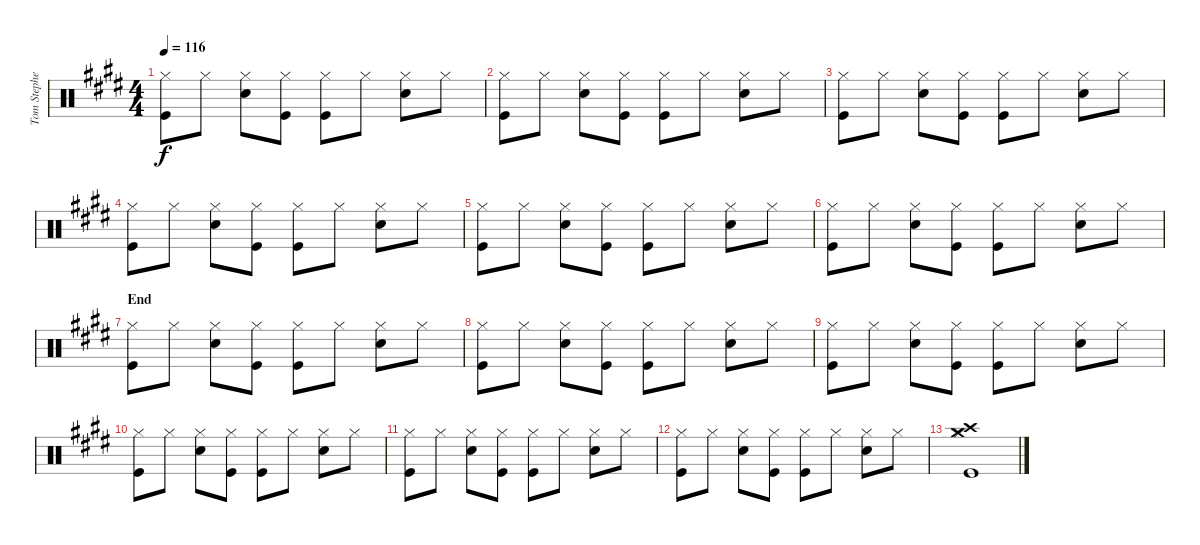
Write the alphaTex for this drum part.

\track ("Tom Stephen" "Tom Stephe") {instrument percussion}
\staff {score}
\articulation defaults
\ts (4 4)
\tempo 116
\clef neutral
\ks e
("Kick (hit)" "Hi-Hat (closed)").8{dy f} "Hi-Hat (closed)".8 ("Snare (hit) 2" "Hi-Hat (closed)").8 ("Kick (hit)" "Hi-Hat (closed)").8 ("Kick (hit)" "Hi-Hat (closed)").8 "Hi-Hat (closed)".8 ("Snare (hit) 2" "Hi-Hat (closed)").8 "Hi-Hat (closed)".8 |
("Kick (hit)" "Hi-Hat (closed)").8 "Hi-Hat (closed)".8 ("Snare (hit) 2" "Hi-Hat (closed)").8 ("Kick (hit)" "Hi-Hat (closed)").8 ("Kick (hit)" "Hi-Hat (closed)").8 "Hi-Hat (closed)".8 ("Snare (hit) 2" "Hi-Hat (closed)").8 "Hi-Hat (closed)".8 |
("Kick (hit)" "Hi-Hat (closed)").8 "Hi-Hat (closed)".8 ("Snare (hit) 2" "Hi-Hat (closed)").8 ("Kick (hit)" "Hi-Hat (closed)").8 ("Kick (hit)" "Hi-Hat (closed)").8 "Hi-Hat (closed)".8 ("Snare (hit) 2" "Hi-Hat (closed)").8 "Hi-Hat (closed)".8 |
("Kick (hit)" "Hi-Hat (closed)").8 "Hi-Hat (closed)".8 ("Snare (hit) 2" "Hi-Hat (closed)").8 ("Kick (hit)" "Hi-Hat (closed)").8 ("Kick (hit)" "Hi-Hat (closed)").8 "Hi-Hat (closed)".8 ("Snare (hit) 2" "Hi-Hat (closed)").8 "Hi-Hat (closed)".8 |
("Kick (hit)" "Hi-Hat (closed)").8 "Hi-Hat (closed)".8 ("Snare (hit) 2" "Hi-Hat (closed)").8 ("Kick (hit)" "Hi-Hat (closed)").8 ("Kick (hit)" "Hi-Hat (closed)").8 "Hi-Hat (closed)".8 ("Snare (hit) 2" "Hi-Hat (closed)").8 "Hi-Hat (closed)".8 |
("Kick (hit)" "Hi-Hat (closed)").8 "Hi-Hat (closed)".8 ("Snare (hit) 2" "Hi-Hat (closed)").8 ("Kick (hit)" "Hi-Hat (closed)").8 ("Kick (hit)" "Hi-Hat (closed)").8 "Hi-Hat (closed)".8 ("Snare (hit) 2" "Hi-Hat (closed)").8 "Hi-Hat (closed)".8 |
\section ("" "End")
("Kick (hit)" "Hi-Hat (closed)").8 "Hi-Hat (closed)".8 ("Snare (hit) 2" "Hi-Hat (closed)").8 ("Kick (hit)" "Hi-Hat (closed)").8 ("Kick (hit)" "Hi-Hat (closed)").8 "Hi-Hat (closed)".8 ("Snare (hit) 2" "Hi-Hat (closed)").8 "Hi-Hat (closed)".8 |
("Kick (hit)" "Hi-Hat (closed)").8 "Hi-Hat (closed)".8 ("Snare (hit) 2" "Hi-Hat (closed)").8 ("Kick (hit)" "Hi-Hat (closed)").8 ("Kick (hit)" "Hi-Hat (closed)").8 "Hi-Hat (closed)".8 ("Snare (hit) 2" "Hi-Hat (closed)").8 "Hi-Hat (closed)".8 |
("Kick (hit)" "Hi-Hat (closed)").8 "Hi-Hat (closed)".8 ("Snare (hit) 2" "Hi-Hat (closed)").8 ("Kick (hit)" "Hi-Hat (closed)").8 ("Kick (hit)" "Hi-Hat (closed)").8 "Hi-Hat (closed)".8 ("Snare (hit) 2" "Hi-Hat (closed)").8 "Hi-Hat (closed)".8 |
("Kick (hit)" "Hi-Hat (closed)").8 "Hi-Hat (closed)".8 ("Snare (hit) 2" "Hi-Hat (closed)").8 ("Kick (hit)" "Hi-Hat (closed)").8 ("Kick (hit)" "Hi-Hat (closed)").8 "Hi-Hat (closed)".8 ("Snare (hit) 2" "Hi-Hat (closed)").8 "Hi-Hat (closed)".8 |
("Kick (hit)" "Hi-Hat (closed)").8 "Hi-Hat (closed)".8 ("Snare (hit) 2" "Hi-Hat (closed)").8 ("Kick (hit)" "Hi-Hat (closed)").8 ("Kick (hit)" "Hi-Hat (closed)").8 "Hi-Hat (closed)".8 ("Snare (hit) 2" "Hi-Hat (closed)").8 "Hi-Hat (closed)".8 |
("Kick (hit)" "Hi-Hat (closed)").8 "Hi-Hat (closed)".8 ("Snare (hit) 2" "Hi-Hat (closed)").8 ("Kick (hit)" "Hi-Hat (closed)").8 ("Kick (hit)" "Hi-Hat (closed)").8 "Hi-Hat (closed)".8 ("Snare (hit) 2" "Hi-Hat (closed)").8 "Hi-Hat (closed)".8 |
("Crash medium (hit)" "Kick (hit)" "Crash high (hit)" "Hi-Hat (closed)").1
